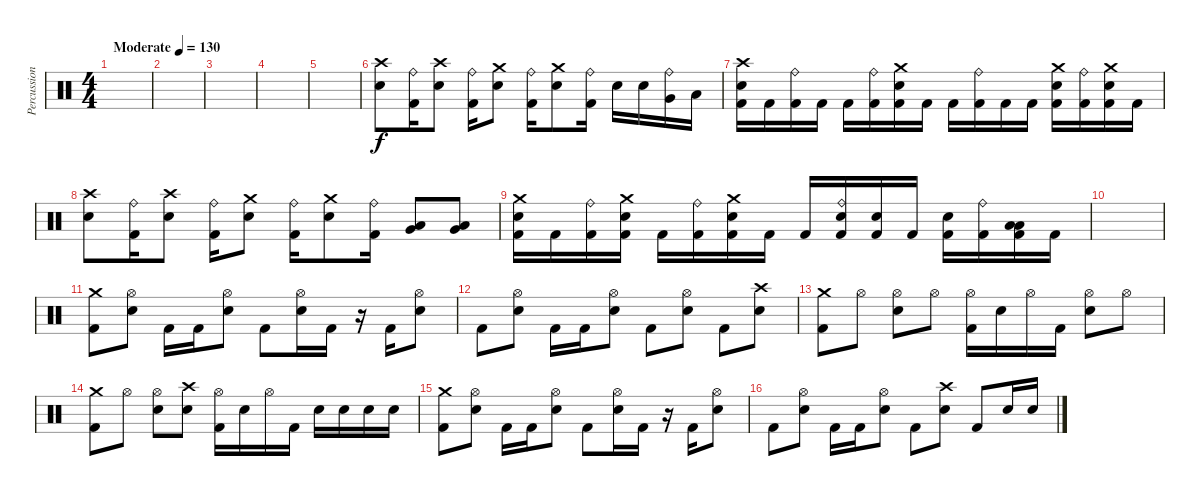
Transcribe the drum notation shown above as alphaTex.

\track ("Percussion" "Percussion") {instrument percussion}
\staff {score}
\articulation defaults
\ts (4 4)
\tempo (130 "Moderate")
\clef neutral
\ks c
|
|
|
|
|
("Crash high (hit)" "Electric Snare (hit)").8 ("Ride (bell)" "Kick (hit) 2").16 ("Crash high (hit)" "Electric Snare (hit)").8 ("Ride (bell)" "Kick (hit) 2").16 ("Crash medium (hit)" "Electric Snare (hit)").8 ("Ride (bell)" "Kick (hit) 2").16 ("Crash medium (hit)" "Electric Snare (hit)").8 ("Ride (bell)" "Kick (hit) 2").16 "Electric Snare (hit)".16 "Electric Snare (hit)".16 ("Ride (bell)" "Very Low Tom (hit)").16 "Low Floor Tom (hit)".16 |
("Crash high (hit)" "Electric Snare (hit)" "Kick (hit) 2").16 "Kick (hit) 2".16 ("Ride (bell)" "Kick (hit) 2").16 "Kick (hit) 2".16 "Kick (hit) 2".16 ("Ride (bell)" "Kick (hit) 2").16 ("Crash medium (hit)" "Electric Snare (hit)" "Kick (hit) 2").16 "Kick (hit) 2".16 "Kick (hit) 2".16 ("Ride (bell)" "Kick (hit) 2").16 "Kick (hit) 2".16 "Kick (hit) 2".16 ("Crash medium (hit)" "Electric Snare (hit)" "Kick (hit) 2").16 ("Ride (bell)" "Kick (hit) 2").16 ("Crash medium (hit)" "Electric Snare (hit)" "Kick (hit) 2").16 "Kick (hit) 2".16 |
("Crash high (hit)" "Electric Snare (hit)").8 ("Ride (bell)" "Kick (hit) 2").16 ("Crash high (hit)" "Electric Snare (hit)").8 ("Ride (bell)" "Kick (hit) 2").16 ("Crash medium (hit)" "Electric Snare (hit)").8 ("Ride (bell)" "Kick (hit) 2").16 ("Crash medium (hit)" "Electric Snare (hit)").8 ("Ride (bell)" "Kick (hit) 2").16 ("Very Low Tom (hit)" "Low Floor Tom (hit)").8 ("Very Low Tom (hit)" "Low Floor Tom (hit)").8 |
("Crash medium (hit)" "Electric Snare (hit)" "Kick (hit) 2").16 "Kick (hit) 2".16 ("Ride (bell)" "Kick (hit) 2").16 ("Crash medium (hit)" "Electric Snare (hit)" "Kick (hit) 2").16 "Kick (hit) 2".16 ("Ride (bell)" "Kick (hit) 2").16 ("Crash medium (hit)" "Electric Snare (hit)" "Kick (hit) 2").16 "Kick (hit) 2".16 "Kick (hit) 2".16 ("Ride (bell)" "Electric Snare (hit)" "Kick (hit) 2").16 ("Electric Snare (hit)" "Kick (hit) 2").16 "Kick (hit) 2".16 ("Electric Snare (hit)" "Kick (hit) 2").16 ("Ride (bell)" "Kick (hit) 2").16 ("Low Floor Tom (hit)" "Low Floor Tom (hit)" "Kick (hit) 2").16 "Kick (hit) 2".16 |
|
("Crash medium (hit)" "Kick (hit) 2").8 ("Hi-Hat (open)" "Electric Snare (hit)").8 "Kick (hit) 2".16 "Kick (hit) 2".16 ("Hi-Hat (open)" "Electric Snare (hit)").8 "Kick (hit) 2".8 ("Hi-Hat (open)" "Electric Snare (hit)").16 "Kick (hit) 2".16 r.16 "Kick (hit) 2".16 ("Hi-Hat (open)" "Electric Snare (hit)").8 |
"Kick (hit) 2".8 ("Hi-Hat (open)" "Electric Snare (hit)").8 "Kick (hit) 2".16 "Kick (hit) 2".16 ("Hi-Hat (open)" "Electric Snare (hit)").8 "Kick (hit) 2".8 ("Hi-Hat (open)" "Electric Snare (hit)").8 "Kick (hit) 2".8 ("Crash high (hit)" "Electric Snare (hit)").8 |
("Crash medium (hit)" "Kick (hit) 2").8 "Hi-Hat (open)".8 ("Hi-Hat (open)" "Electric Snare (hit)").8 "Hi-Hat (open)".8 ("Hi-Hat (open)" "Kick (hit) 2").16 "Electric Snare (hit)".16 "Hi-Hat (open)".16 "Kick (hit) 2".16 ("Hi-Hat (open)" "Electric Snare (hit)").8 "Hi-Hat (open)".8 |
("Crash medium (hit)" "Kick (hit) 2").8 "Hi-Hat (open)".8 ("Hi-Hat (open)" "Electric Snare (hit)").8 ("Crash high (hit)" "Electric Snare (hit)").8 ("Hi-Hat (open)" "Kick (hit) 2").16 "Electric Snare (hit)".16 "Hi-Hat (open)".16 "Kick (hit) 2".16 "Electric Snare (hit)".16 "Electric Snare (hit)".16 "Electric Snare (hit)".16 "Electric Snare (hit)".16 |
("Crash medium (hit)" "Kick (hit) 2").8 ("Hi-Hat (open)" "Electric Snare (hit)").8 "Kick (hit) 2".16 "Kick (hit) 2".16 ("Hi-Hat (open)" "Electric Snare (hit)").8 "Kick (hit) 2".8 ("Hi-Hat (open)" "Electric Snare (hit)").16 "Kick (hit) 2".16 r.16 "Kick (hit) 2".16 ("Hi-Hat (open)" "Electric Snare (hit)").8 |
"Kick (hit) 2".8 ("Hi-Hat (open)" "Electric Snare (hit)").8 "Kick (hit) 2".16 "Kick (hit) 2".16 ("Hi-Hat (open)" "Electric Snare (hit)").8 "Kick (hit) 2".8 ("Crash high (hit)" "Electric Snare (hit)").8 "Kick (hit) 2".8 "Electric Snare (hit)".16 "Electric Snare (hit)".16
